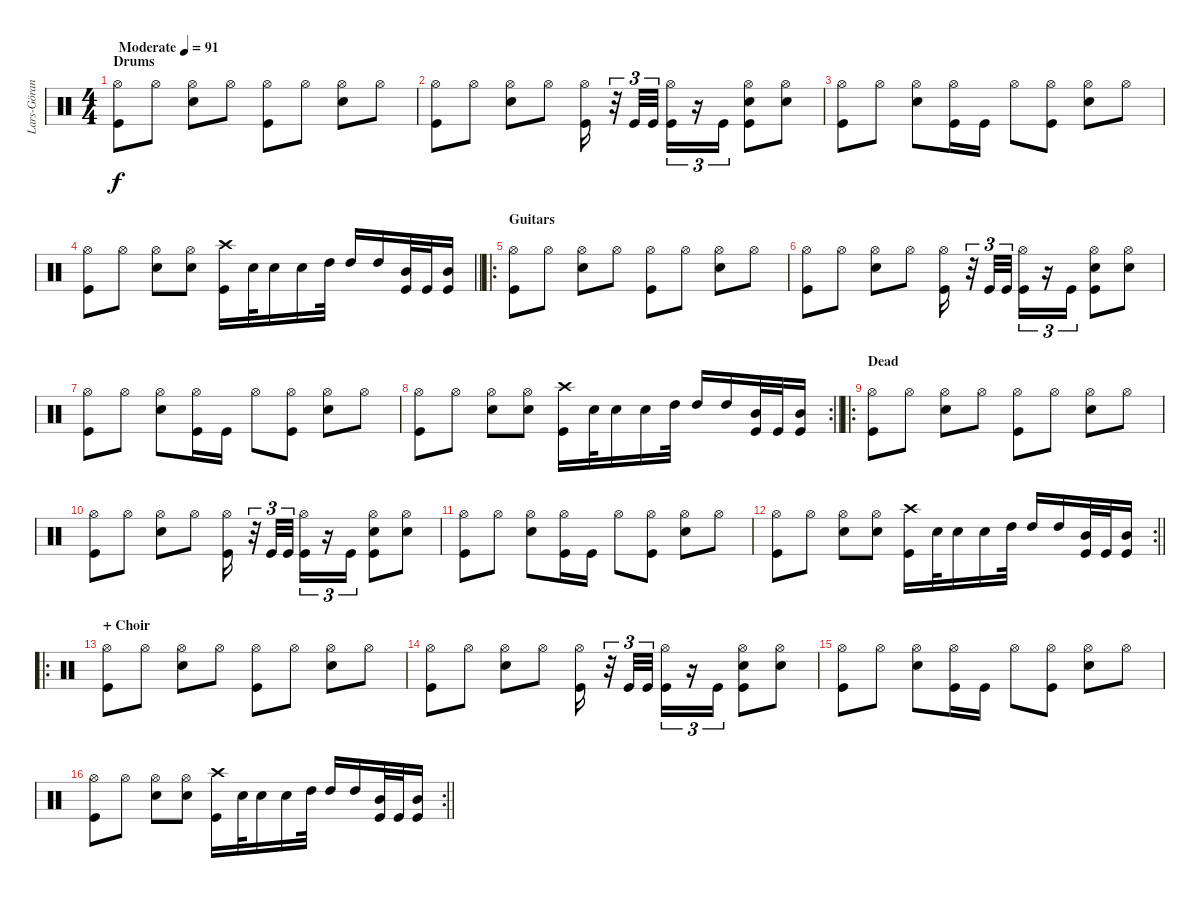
\track ("Lars-Göran Petrov" "Lars-Göran") {instrument percussion}
\staff {score}
\articulation defaults
\ts (4 4)
\section ("" "Drums")
\tempo (91 "Moderate")
\clef neutral
\ks c
("Hi-Hat (open)" "Kick (hit)").8{dy f} "Hi-Hat (open)".8 ("Hi-Hat (open)" "Electric Snare (hit)").8 "Hi-Hat (open)".8 ("Hi-Hat (open)" "Kick (hit)").8 "Hi-Hat (open)".8 ("Hi-Hat (open)" "Electric Snare (hit)").8 "Hi-Hat (open)".8 |
("Hi-Hat (open)" "Kick (hit)").8 "Hi-Hat (open)".8 ("Hi-Hat (open)" "Electric Snare (hit)").8 "Hi-Hat (open)".8 ("Hi-Hat (open)" "Kick (hit)").16 r.32{tu (3 2)} "Kick (hit)".32{tu (3 2)} "Kick (hit)".32{tu (3 2) beam splitsecondary} ("Hi-Hat (open)" "Kick (hit)").16{tu (3 2)} r.16{tu (3 2)} "Kick (hit)".16{tu (3 2)} ("Hi-Hat (open)" "Electric Snare (hit)" "Kick (hit)").8 ("Hi-Hat (open)" "Electric Snare (hit)").8 |
("Hi-Hat (open)" "Kick (hit)").8 "Hi-Hat (open)".8 ("Hi-Hat (open)" "Electric Snare (hit)").8 ("Hi-Hat (open)" "Kick (hit)").16 "Kick (hit)".16 "Hi-Hat (open)".8 ("Hi-Hat (open)" "Kick (hit)").8 ("Hi-Hat (open)" "Electric Snare (hit)").8 "Hi-Hat (open)".8 |
\barLineRight lightlight
("Hi-Hat (open)" "Kick (hit)").8 "Hi-Hat (open)".8 ("Hi-Hat (open)" "Electric Snare (hit)").8 ("Hi-Hat (open)" "Electric Snare (hit)").8 ("Crash high (hit)" "Kick (hit)").16 "Electric Snare (hit)".32 "Electric Snare (hit)".16 "Electric Snare (hit)".16 "High Tom (hit)".32 "High Tom (hit)".16 "High Tom (hit)".16 ("Mid Tom (hit)" "Kick (hit)").32 "Kick (hit)".32 ("Mid Tom (hit)" "Kick (hit)").16 |
\ro
\section ("" "Guitars")
("Hi-Hat (open)" "Kick (hit)").8 "Hi-Hat (open)".8 ("Hi-Hat (open)" "Electric Snare (hit)").8 "Hi-Hat (open)".8 ("Hi-Hat (open)" "Kick (hit)").8 "Hi-Hat (open)".8 ("Hi-Hat (open)" "Electric Snare (hit)").8 "Hi-Hat (open)".8 |
("Hi-Hat (open)" "Kick (hit)").8 "Hi-Hat (open)".8 ("Hi-Hat (open)" "Electric Snare (hit)").8 "Hi-Hat (open)".8 ("Hi-Hat (open)" "Kick (hit)").16 r.32{tu (3 2)} "Kick (hit)".32{tu (3 2)} "Kick (hit)".32{tu (3 2) beam splitsecondary} ("Hi-Hat (open)" "Kick (hit)").16{tu (3 2)} r.16{tu (3 2)} "Kick (hit)".16{tu (3 2)} ("Hi-Hat (open)" "Electric Snare (hit)" "Kick (hit)").8 ("Hi-Hat (open)" "Electric Snare (hit)").8 |
("Hi-Hat (open)" "Kick (hit)").8 "Hi-Hat (open)".8 ("Hi-Hat (open)" "Electric Snare (hit)").8 ("Hi-Hat (open)" "Kick (hit)").16 "Kick (hit)".16 "Hi-Hat (open)".8 ("Hi-Hat (open)" "Kick (hit)").8 ("Hi-Hat (open)" "Electric Snare (hit)").8 "Hi-Hat (open)".8 |
\rc 2
\barLineRight lightlight
("Hi-Hat (open)" "Kick (hit)").8 "Hi-Hat (open)".8 ("Hi-Hat (open)" "Electric Snare (hit)").8 ("Hi-Hat (open)" "Electric Snare (hit)").8 ("Crash high (hit)" "Kick (hit)").16 "Electric Snare (hit)".32 "Electric Snare (hit)".16 "Electric Snare (hit)".16 "High Tom (hit)".32 "High Tom (hit)".16 "High Tom (hit)".16 ("Mid Tom (hit)" "Kick (hit)").32 "Kick (hit)".32 ("Mid Tom (hit)" "Kick (hit)").16 |
\ro
\section ("" "Dead")
("Hi-Hat (open)" "Kick (hit)").8 "Hi-Hat (open)".8 ("Hi-Hat (open)" "Electric Snare (hit)").8 "Hi-Hat (open)".8 ("Hi-Hat (open)" "Kick (hit)").8 "Hi-Hat (open)".8 ("Hi-Hat (open)" "Electric Snare (hit)").8 "Hi-Hat (open)".8 |
("Hi-Hat (open)" "Kick (hit)").8 "Hi-Hat (open)".8 ("Hi-Hat (open)" "Electric Snare (hit)").8 "Hi-Hat (open)".8 ("Hi-Hat (open)" "Kick (hit)").16 r.32{tu (3 2)} "Kick (hit)".32{tu (3 2)} "Kick (hit)".32{tu (3 2) beam splitsecondary} ("Hi-Hat (open)" "Kick (hit)").16{tu (3 2)} r.16{tu (3 2)} "Kick (hit)".16{tu (3 2)} ("Hi-Hat (open)" "Electric Snare (hit)" "Kick (hit)").8 ("Hi-Hat (open)" "Electric Snare (hit)").8 |
("Hi-Hat (open)" "Kick (hit)").8 "Hi-Hat (open)".8 ("Hi-Hat (open)" "Electric Snare (hit)").8 ("Hi-Hat (open)" "Kick (hit)").16 "Kick (hit)".16 "Hi-Hat (open)".8 ("Hi-Hat (open)" "Kick (hit)").8 ("Hi-Hat (open)" "Electric Snare (hit)").8 "Hi-Hat (open)".8 |
\rc 2
\barLineRight lightlight
("Hi-Hat (open)" "Kick (hit)").8 "Hi-Hat (open)".8 ("Hi-Hat (open)" "Electric Snare (hit)").8 ("Hi-Hat (open)" "Electric Snare (hit)").8 ("Crash high (hit)" "Kick (hit)").16 "Electric Snare (hit)".32 "Electric Snare (hit)".16 "Electric Snare (hit)".16 "High Tom (hit)".32 "High Tom (hit)".16 "High Tom (hit)".16 ("Mid Tom (hit)" "Kick (hit)").32 "Kick (hit)".32 ("Mid Tom (hit)" "Kick (hit)").16 |
\ro
\section ("" "+ Choir")
("Hi-Hat (open)" "Kick (hit)").8 "Hi-Hat (open)".8 ("Hi-Hat (open)" "Electric Snare (hit)").8 "Hi-Hat (open)".8 ("Hi-Hat (open)" "Kick (hit)").8 "Hi-Hat (open)".8 ("Hi-Hat (open)" "Electric Snare (hit)").8 "Hi-Hat (open)".8 |
("Hi-Hat (open)" "Kick (hit)").8 "Hi-Hat (open)".8 ("Hi-Hat (open)" "Electric Snare (hit)").8 "Hi-Hat (open)".8 ("Hi-Hat (open)" "Kick (hit)").16 r.32{tu (3 2)} "Kick (hit)".32{tu (3 2)} "Kick (hit)".32{tu (3 2) beam splitsecondary} ("Hi-Hat (open)" "Kick (hit)").16{tu (3 2)} r.16{tu (3 2)} "Kick (hit)".16{tu (3 2)} ("Hi-Hat (open)" "Electric Snare (hit)" "Kick (hit)").8 ("Hi-Hat (open)" "Electric Snare (hit)").8 |
("Hi-Hat (open)" "Kick (hit)").8 "Hi-Hat (open)".8 ("Hi-Hat (open)" "Electric Snare (hit)").8 ("Hi-Hat (open)" "Kick (hit)").16 "Kick (hit)".16 "Hi-Hat (open)".8 ("Hi-Hat (open)" "Kick (hit)").8 ("Hi-Hat (open)" "Electric Snare (hit)").8 "Hi-Hat (open)".8 |
\rc 2
\barLineRight lightlight
("Hi-Hat (open)" "Kick (hit)").8 "Hi-Hat (open)".8 ("Hi-Hat (open)" "Electric Snare (hit)").8 ("Hi-Hat (open)" "Electric Snare (hit)").8 ("Crash high (hit)" "Kick (hit)").16 "Electric Snare (hit)".32 "Electric Snare (hit)".16 "Electric Snare (hit)".16 "High Tom (hit)".32 "High Tom (hit)".16 "High Tom (hit)".16 ("Mid Tom (hit)" "Kick (hit)").32 "Kick (hit)".32 ("Mid Tom (hit)" "Kick (hit)").16
